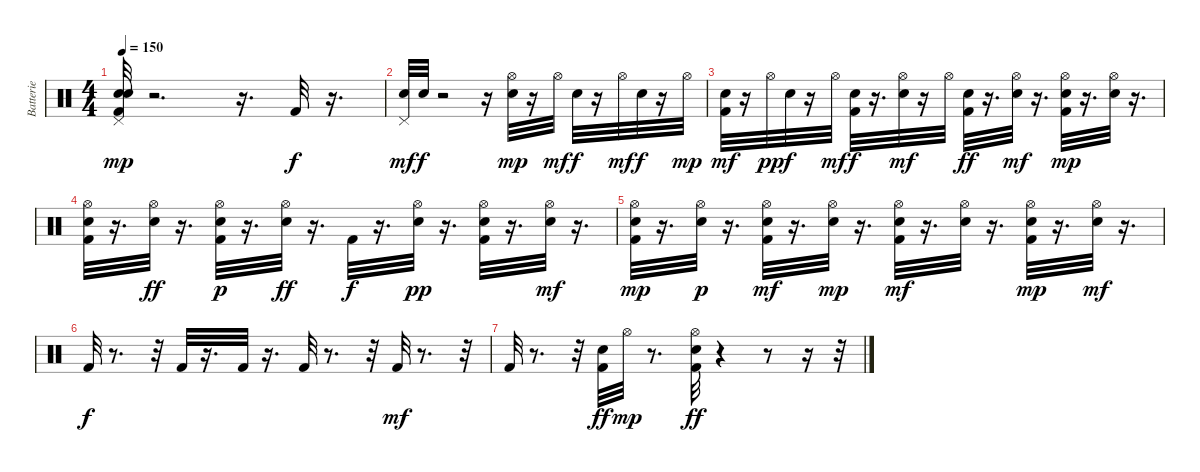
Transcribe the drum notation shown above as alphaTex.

\track ("Batterie" "Batterie") {instrument percussion}
\staff {score}
\articulation defaults
\ts (4 4)
\tempo 150
\clef neutral
\ks c
("Electric Snare (hit)" "Pedal Hi-Hat (hit)" "Kick (hit) 2" "Electric Snare (hit)").32{dy mp} r.2{d} r.16{d} "Kick (hit) 2".32{dy f} r.16{d} |
("Electric Snare (hit)" "Pedal Hi-Hat (hit)").32{dy mf} "Electric Snare (hit)".32{dy f} r.2 r.16 ("Hi-Hat (open)" "Electric Snare (hit)").32{dy mp} r.16 "Hi-Hat (open)".32{dy mf} "Electric Snare (hit)".32{dy f} r.16 "Hi-Hat (open)".32{dy mf} "Electric Snare (hit)".32{dy f} r.16 "Hi-Hat (open)".32{dy mp} |
("Kick (hit) 2" "Electric Snare (hit)").32{dy mf} r.16 "Hi-Hat (open)".32{dy pp} "Electric Snare (hit)".32{dy f} r.16 "Hi-Hat (open)".32{dy mf} ("Kick (hit) 2" "Electric Snare (hit)").32{dy f} r.16{d} ("Hi-Hat (open)" "Electric Snare (hit)").32{dy mf} r.16 "Hi-Hat (open)".32 ("Kick (hit) 2" "Electric Snare (hit)").32{dy ff} r.16{d} ("Hi-Hat (open)" "Electric Snare (hit)").32{dy mf} r.16{d} ("Hi-Hat (open)" "Kick (hit) 2" "Electric Snare (hit)").32{dy mp} r.16{d} ("Hi-Hat (open)" "Electric Snare (hit)").32 r.16{d} |
("Hi-Hat (open)" "Kick (hit) 2" "Electric Snare (hit)").32 r.16{d} ("Hi-Hat (open)" "Electric Snare (hit)").32{dy ff} r.16{d} ("Hi-Hat (open)" "Electric Snare (hit)" "Kick (hit) 2").32{dy p} r.16{d} ("Hi-Hat (open)" "Electric Snare (hit)").32{dy ff} r.16{d} "Kick (hit) 2".32{dy f} r.16{d} ("Hi-Hat (open)" "Electric Snare (hit)").32{dy pp} r.16{d} ("Kick (hit) 2" "Electric Snare (hit)" "Hi-Hat (open)").32 r.16{d} ("Hi-Hat (open)" "Electric Snare (hit)").32{dy mf} r.16{d} |
("Kick (hit) 2" "Hi-Hat (open)" "Electric Snare (hit)").32{dy mp} r.16{d} ("Hi-Hat (open)" "Electric Snare (hit)").32{dy p} r.16{d} ("Hi-Hat (open)" "Electric Snare (hit)" "Kick (hit) 2").32{dy mf} r.16{d} ("Hi-Hat (open)" "Electric Snare (hit)").32{dy mp} r.16{d} ("Hi-Hat (open)" "Kick (hit) 2" "Electric Snare (hit)").32{dy mf} r.16{d} ("Hi-Hat (open)" "Electric Snare (hit)").32 r.16{d} ("Electric Snare (hit)" "Hi-Hat (open)" "Kick (hit) 2").32{dy mp} r.16{d} ("Electric Snare (hit)" "Hi-Hat (open)").32{dy mf} r.16{d} |
"Kick (hit) 2".32{dy f} r.8{d} r.32 "Kick (hit) 2".32 r.16{d} "Kick (hit) 2".32 r.16{d} "Kick (hit) 2".32 r.8{d} r.32 "Kick (hit) 2".32{dy mf} r.8{d} r.32 |
"Kick (hit) 2".32 r.8{d} r.32 ("Kick (hit) 2" "Electric Snare (hit)").32{dy ff} "Hi-Hat (open)".32{dy mp} r.8{d} ("Kick (hit) 2" "Electric Snare (hit)" "Hi-Hat (open)").32{dy ff} r.4 r.8 r.16 r.32
